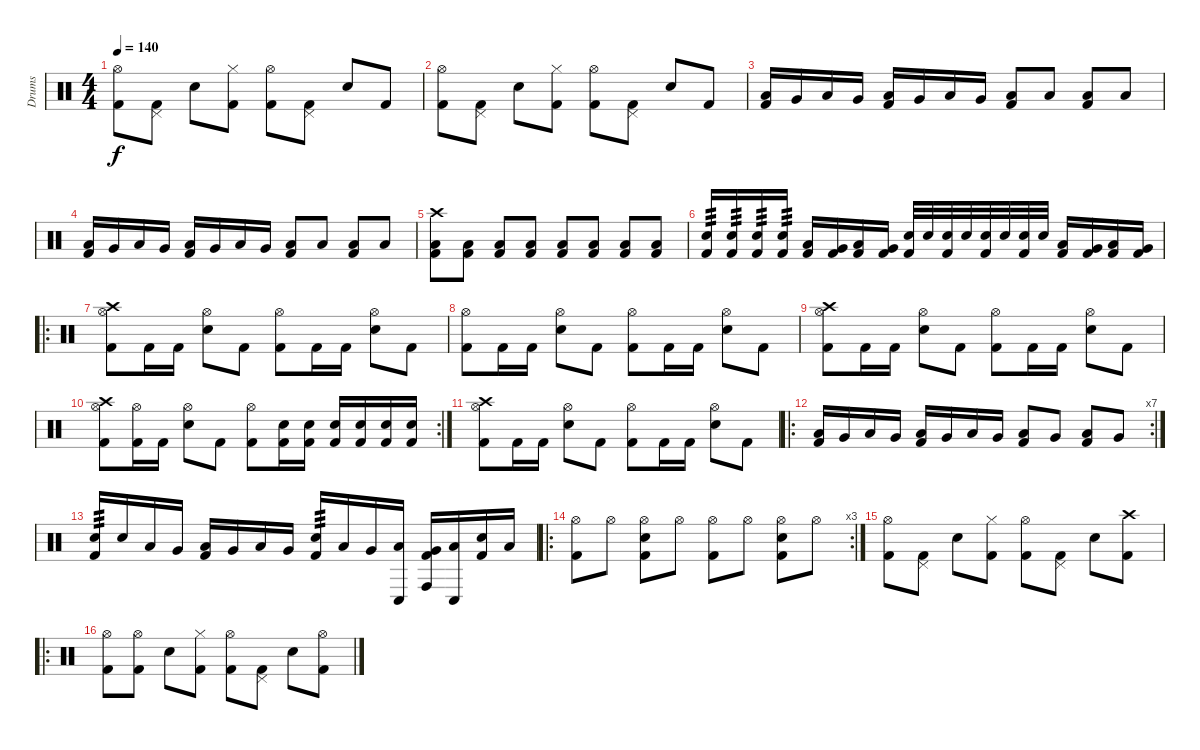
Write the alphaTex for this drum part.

\track ("Drums" "Drums") {instrument percussion}
\staff {score}
\articulation defaults
\ts (4 4)
\tempo 140
\clef neutral
\ks c
("Hi-Hat (open)" "Kick (hit) 2").8{dy f} ("Pedal Hi-Hat (hit)" "Kick (hit) 2").8 "Electric Snare (hit)".8 ("Hi-Hat (closed)" "Kick (hit) 2").8 ("Hi-Hat (open)" "Kick (hit) 2").8 ("Pedal Hi-Hat (hit)" "Kick (hit) 2").8 "Electric Snare (hit)".8 "Kick (hit) 2".8 |
("Hi-Hat (open)" "Kick (hit) 2").8 ("Pedal Hi-Hat (hit)" "Kick (hit) 2").8 "Electric Snare (hit)".8 ("Hi-Hat (closed)" "Kick (hit) 2").8 ("Hi-Hat (open)" "Kick (hit) 2").8 ("Pedal Hi-Hat (hit)" "Kick (hit) 2").8 "Electric Snare (hit)".8 "Kick (hit) 2".8 |
("Low Floor Tom (hit)" "Kick (hit) 2").16 "Very Low Tom (hit)".16 "Low Floor Tom (hit)".16 "Very Low Tom (hit)".16 ("Low Floor Tom (hit)" "Kick (hit) 2").16 "Very Low Tom (hit)".16 "Low Floor Tom (hit)".16 "Very Low Tom (hit)".16 ("Low Floor Tom (hit)" "Kick (hit) 2").8 "Low Floor Tom (hit)".8 ("Low Floor Tom (hit)" "Kick (hit) 2").8 "Low Floor Tom (hit)".8 |
("Low Floor Tom (hit)" "Kick (hit) 2").16 "Very Low Tom (hit)".16 "Low Floor Tom (hit)".16 "Very Low Tom (hit)".16 ("Low Floor Tom (hit)" "Kick (hit) 2").16 "Very Low Tom (hit)".16 "Low Floor Tom (hit)".16 "Very Low Tom (hit)".16 ("Low Floor Tom (hit)" "Kick (hit) 2").8 "Low Floor Tom (hit)".8 ("Low Floor Tom (hit)" "Kick (hit) 2").8 "Low Floor Tom (hit)".8 |
("Crash high (hit)" "Low Floor Tom (hit)" "Kick (hit) 2").8 ("Low Floor Tom (hit)" "Kick (hit) 2").8 ("Low Floor Tom (hit)" "Kick (hit) 2").8 ("Low Floor Tom (hit)" "Kick (hit) 2").8 ("Low Floor Tom (hit)" "Kick (hit) 2").8 ("Low Floor Tom (hit)" "Kick (hit) 2").8 ("Low Floor Tom (hit)" "Kick (hit) 2").8 ("Low Floor Tom (hit)" "Kick (hit) 2").8 |
("Electric Snare (hit)" "Kick (hit) 2").16{tp 3} ("Electric Snare (hit)" "Kick (hit) 2").16{tp 3} ("Electric Snare (hit)" "Kick (hit) 2").16{tp 3} ("Electric Snare (hit)" "Kick (hit) 2").16{tp 3} ("Low Floor Tom (hit)" "Kick (hit) 2").16 ("Very Low Tom (hit)" "Kick (hit) 2").16 ("Low Tom (hit)" "Kick (hit) 2").16 ("Very Low Tom (hit)" "Kick (hit) 2").16 ("Electric Snare (hit)" "Kick (hit) 2").32 "Electric Snare (hit)".32 ("Electric Snare (hit)" "Kick (hit) 2").32 "Electric Snare (hit)".32 ("Electric Snare (hit)" "Kick (hit) 2").32 "Electric Snare (hit)".32 ("Electric Snare (hit)" "Kick (hit) 2").32 "Electric Snare (hit)".32 ("Low Floor Tom (hit)" "Kick (hit) 2").16 ("Very Low Tom (hit)" "Kick (hit) 2").16 ("Low Tom (hit)" "Kick (hit) 2").16 ("Very Low Tom (hit)" "Kick (hit) 2").16 |
\ro
("Crash high (hit)" "Hi-Hat (open)" "Kick (hit) 2").8 "Kick (hit) 2".16 "Kick (hit) 2".16 ("Hi-Hat (open)" "Electric Snare (hit)").8 "Kick (hit) 2".8 ("Hi-Hat (open)" "Kick (hit) 2").8 "Kick (hit) 2".16 "Kick (hit) 2".16 ("Hi-Hat (open)" "Electric Snare (hit)").8 "Kick (hit) 2".8 |
("Hi-Hat (open)" "Kick (hit) 2").8 "Kick (hit) 2".16 "Kick (hit) 2".16 ("Hi-Hat (open)" "Electric Snare (hit)").8 "Kick (hit) 2".8 ("Hi-Hat (open)" "Kick (hit) 2").8 "Kick (hit) 2".16 "Kick (hit) 2".16 ("Hi-Hat (open)" "Electric Snare (hit)").8 "Kick (hit) 2".8 |
("Crash high (hit)" "Hi-Hat (open)" "Kick (hit) 2").8 "Kick (hit) 2".16 "Kick (hit) 2".16 ("Hi-Hat (open)" "Electric Snare (hit)").8 "Kick (hit) 2".8 ("Hi-Hat (open)" "Kick (hit) 2").8 "Kick (hit) 2".16 "Kick (hit) 2".16 ("Hi-Hat (open)" "Electric Snare (hit)").8 "Kick (hit) 2".8 |
\rc 2
("Crash high (hit)" "Hi-Hat (open)" "Kick (hit) 2").8 ("Hi-Hat (open)" "Kick (hit) 2").16 "Kick (hit) 2".16 ("Hi-Hat (open)" "Electric Snare (hit)").8 "Kick (hit) 2".8 ("Hi-Hat (open)" "Kick (hit) 2").8 ("Electric Snare (hit)" "Kick (hit) 2").16 ("Electric Snare (hit)" "Kick (hit) 2").16 ("Electric Snare (hit)" "Kick (hit) 2").16 ("Electric Snare (hit)" "Kick (hit) 2").16 ("Electric Snare (hit)" "Kick (hit) 2").16 ("Electric Snare (hit)" "Kick (hit) 2").16 |
("Crash high (hit)" "Hi-Hat (open)" "Kick (hit) 2").8 "Kick (hit) 2".16 "Kick (hit) 2".16 ("Hi-Hat (open)" "Electric Snare (hit)").8 "Kick (hit) 2".8 ("Hi-Hat (open)" "Kick (hit) 2").8 "Kick (hit) 2".16 "Kick (hit) 2".16 ("Hi-Hat (open)" "Electric Snare (hit)").8 "Kick (hit) 2".8 |
\ro
\rc 7
("Low Floor Tom (hit)" "Kick (hit) 2").16 "Very Low Tom (hit)".16 "Low Floor Tom (hit)".16 "Very Low Tom (hit)".16 ("Low Floor Tom (hit)" "Kick (hit) 2").16 "Very Low Tom (hit)".16 "Low Floor Tom (hit)".16 "Very Low Tom (hit)".16 ("Low Floor Tom (hit)" "Kick (hit) 2").8 "Very Low Tom (hit)".8 ("Low Floor Tom (hit)" "Kick (hit) 2").8 "Very Low Tom (hit)".8 |
("Electric Snare (hit)" "Kick (hit) 2").16{tp 3} "Electric Snare (hit)".16 "Low Floor Tom (hit)".16 "Very Low Tom (hit)".16 ("Low Floor Tom (hit)" "Kick (hit) 2").16 "Very Low Tom (hit)".16 "Low Floor Tom (hit)".16 "Very Low Tom (hit)".16 ("Electric Snare (hit)" "Kick (hit) 2").16{tp 3} "Low Floor Tom (hit)".16 "Very Low Tom (hit)".16 ("Conga low (hit)" "Low Floor Tom (hit)").16 ("Conga high (hit)" "Very Low Tom (hit)" "Kick (hit) 2").16 ("Conga low (hit)" "Low Floor Tom (hit)").16 ("Electric Snare (hit)" "Kick (hit) 2").16 "Low Floor Tom (hit)".16 |
\ro
\rc 3
("Hi-Hat (open)" "Kick (hit) 2").8 "Hi-Hat (open)".8 ("Electric Snare (hit)" "Hi-Hat (open)" "Kick (hit) 2").8 "Hi-Hat (open)".8 ("Hi-Hat (open)" "Kick (hit) 2").8 "Hi-Hat (open)".8 ("Electric Snare (hit)" "Hi-Hat (open)" "Kick (hit) 2").8 "Hi-Hat (open)".8 |
("Hi-Hat (open)" "Kick (hit) 2").8 ("Pedal Hi-Hat (hit)" "Kick (hit) 2").8 "Electric Snare (hit)".8 ("Hi-Hat (closed)" "Kick (hit) 2").8 ("Hi-Hat (open)" "Kick (hit) 2").8 ("Pedal Hi-Hat (hit)" "Kick (hit) 2").8 "Electric Snare (hit)".8 ("Crash high (hit)" "Kick (hit) 2").8 |
\ro
("Hi-Hat (open)" "Kick (hit) 2").8 ("Hi-Hat (open)" "Kick (hit) 2").8 "Electric Snare (hit)".8 ("Hi-Hat (closed)" "Kick (hit) 2").8 ("Hi-Hat (open)" "Kick (hit) 2").8 ("Pedal Hi-Hat (hit)" "Kick (hit) 2").8 "Electric Snare (hit)".8 ("Hi-Hat (open)" "Kick (hit) 2").8
